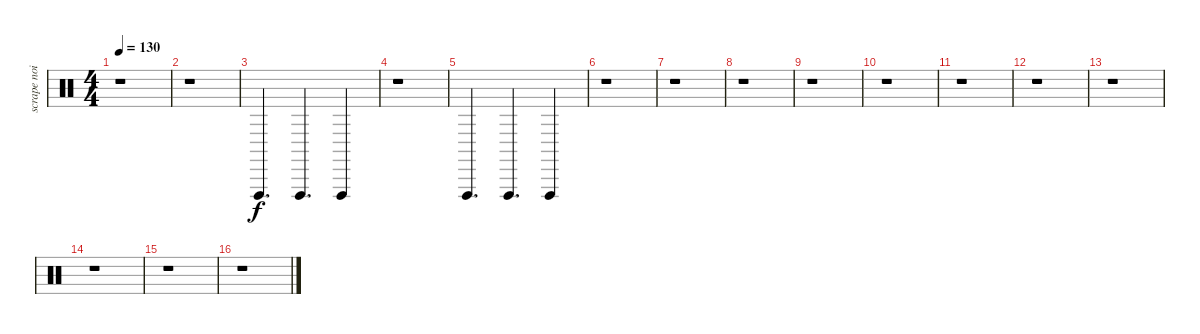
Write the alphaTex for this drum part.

\track ("scrape noise" "scrape noi") {instrument percussion}
\staff {score}
\articulation defaults
\ts (4 4)
\tempo 130
\clef neutral
\ks c
r.1{dy f} |
r.1 |
"Vibraslap (hit)".4{d balance 0} "Vibraslap (hit)".4{d balance 16} "Vibraslap (hit)".4{balance 8} |
r.1 |
"Vibraslap (hit)".4{d balance 0} "Vibraslap (hit)".4{d balance 16} "Vibraslap (hit)".4{balance 8} |
r.1 |
r.1 |
r.1 |
r.1 |
r.1 |
r.1 |
r.1 |
r.1 |
r.1 |
r.1 |
r.1
